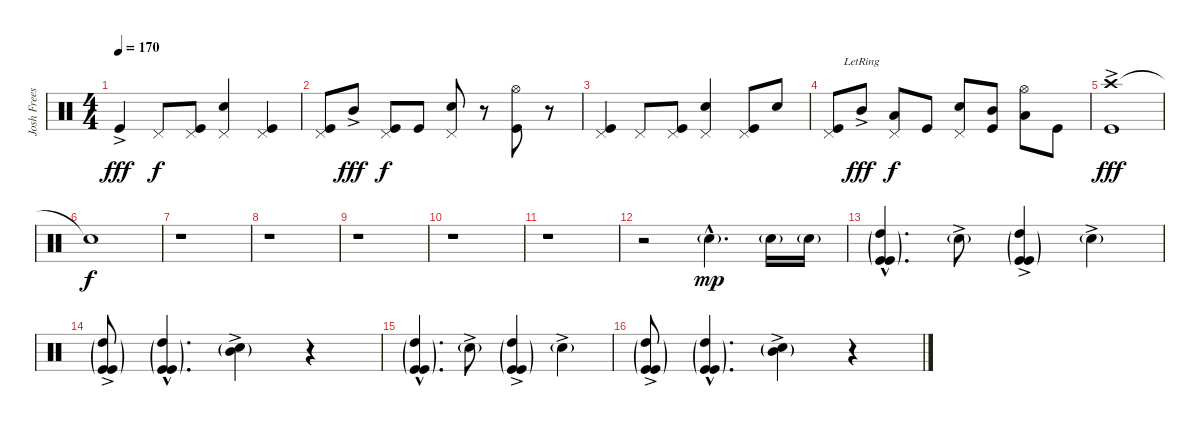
\track ("Josh Freese - Drums" "Josh Frees") {instrument percussion}
\staff {score}
\articulation defaults
\ts (4 4)
\tempo 170
\clef neutral
\ks c "Kick (hit)"{ac}.4{dy fff} "Pedal Hi-Hat (hit)".8{dy f}
("Pedal Hi-Hat (hit)" "Kick (hit)").8 ("Pedal Hi-Hat (hit)" "Electric Snare (hit)").4 ("Pedal Hi-Hat (hit)" "Kick (hit)").4 |
("Pedal Hi-Hat (hit)" "Kick (hit)").8 "Mid Tom (hit)"{ac}.8{dy fff} ("Pedal Hi-Hat (hit)" "Kick (hit)").8{dy f} "Kick (hit)".8 ("Pedal Hi-Hat (hit)" "Electric Snare (hit)").8 r.8 ("Hi-Hat (open)" "Kick (hit)").8 r.8 |
("Pedal Hi-Hat (hit)" "Kick (hit)").4 "Pedal Hi-Hat (hit)".8 ("Pedal Hi-Hat (hit)" "Kick (hit)").8 ("Pedal Hi-Hat (hit)" "Electric Snare (hit)").4 ("Pedal Hi-Hat (hit)" "Kick (hit)").8 "Electric Snare (hit)".8 |
("Pedal Hi-Hat (hit)" "Kick (hit)").8 "Mid Tom (hit)"{ac lr}.8{dy fff} ("Pedal Hi-Hat (hit)" "Low Tom (hit)").8{dy f} "Kick (hit)".8 ("Pedal Hi-Hat (hit)" "Electric Snare (hit)").8 ("Mid Tom (hit)" "Kick (hit)").8 ("Hi-Hat (open)" "Low Tom (hit)").8 "Kick (hit)".8 |
("Crash high (hit)"{ac} "Kick (hit)"{ac}).1{dy fff} |
"Snare (hit)"{t}.1{dy f} |
r.1 |
r.1 |
r.1 |
r.1 |
r.1 |
r.2 "Electric Snare (hit)"{g hac}.4{d dy mp volume 10} "Electric Snare (hit)"{g}.16 "Electric Snare (hit)"{g}.16 |
("High Tom (hit)"{g hac} "Kick (hit)"{g hac} "Kick (hit)"{g hac}).4{d} "Electric Snare (hit)"{g ac}.8 ("High Tom (hit)"{g} "Kick (hit)"{g ac} "Kick (hit)"{g ac}).4 "Electric Snare (hit)"{g ac}.4 |
("High Tom (hit)"{g} "Kick (hit)"{g ac} "Kick (hit)"{g ac}).8 ("High Tom (hit)"{g hac} "Kick (hit)"{g hac} "Kick (hit)"{g hac}).4{d} ("Mid Tom (hit)"{g ac} "Electric Snare (hit)"{g ac}).4 r.4 |
("High Tom (hit)"{g hac} "Kick (hit)"{g hac} "Kick (hit)"{g hac}).4{d} "Electric Snare (hit)"{g ac}.8 ("High Tom (hit)"{g} "Kick (hit)"{g ac} "Kick (hit)"{g ac}).4 "Electric Snare (hit)"{g ac}.4 |
("High Tom (hit)"{g} "Kick (hit)"{g ac} "Kick (hit)"{g ac}).8 ("High Tom (hit)"{g hac} "Kick (hit)"{g hac} "Kick (hit)"{g hac}).4{d} ("Mid Tom (hit)"{g ac} "Electric Snare (hit)"{g ac}).4 r.4
